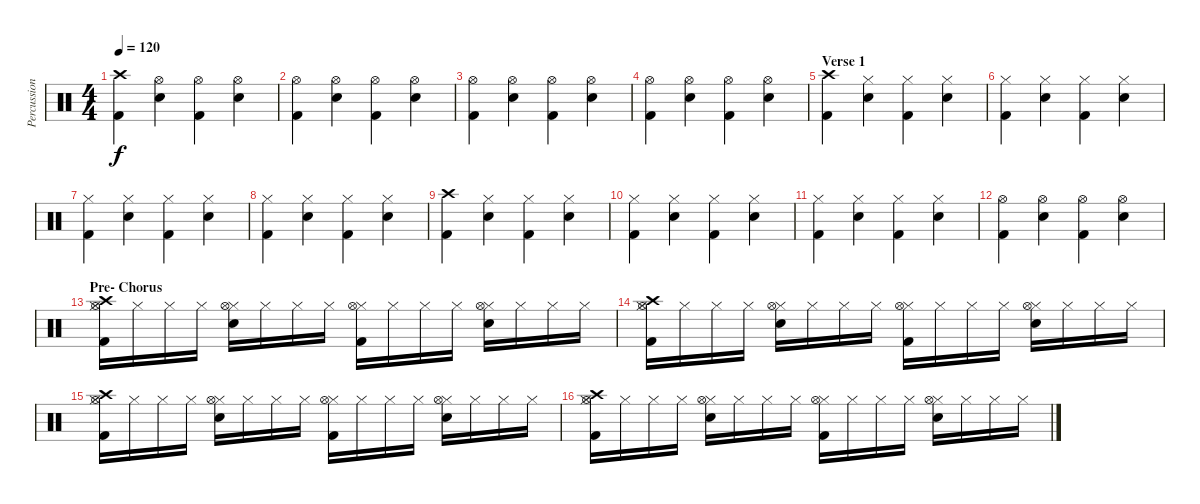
\track ("Percussion" "Percussion") {instrument percussion}
\staff {score}
\articulation defaults
\ts (4 4)
\tempo 120
\clef neutral
\ks c
("Crash high (hit)" "Kick (hit) 2").4{dy f} ("Hi-Hat (open)" "Snare (hit) 2").4 ("Hi-Hat (open)" "Kick (hit) 2").4 ("Hi-Hat (open)" "Snare (hit) 2").4 |
("Hi-Hat (open)" "Kick (hit) 2").4 ("Hi-Hat (open)" "Snare (hit) 2").4 ("Hi-Hat (open)" "Kick (hit) 2").4 ("Hi-Hat (open)" "Snare (hit) 2").4 |
("Hi-Hat (open)" "Kick (hit) 2").4 ("Hi-Hat (open)" "Snare (hit) 2").4 ("Hi-Hat (open)" "Kick (hit) 2").4 ("Hi-Hat (open)" "Snare (hit) 2").4 |
("Hi-Hat (open)" "Kick (hit) 2").4 ("Hi-Hat (open)" "Snare (hit) 2").4 ("Hi-Hat (open)" "Kick (hit) 2").4 ("Hi-Hat (open)" "Snare (hit) 2").4 |
\section ("" "Verse 1")
("Crash high (hit)" "Kick (hit) 2").4 ("Hi-Hat (closed)" "Snare (hit) 2").4 ("Hi-Hat (closed)" "Kick (hit) 2").4 ("Hi-Hat (closed)" "Snare (hit) 2").4 |
("Hi-Hat (closed)" "Kick (hit) 2").4 ("Hi-Hat (closed)" "Snare (hit) 2").4 ("Hi-Hat (closed)" "Kick (hit) 2").4 ("Hi-Hat (closed)" "Snare (hit) 2").4 |
("Hi-Hat (closed)" "Kick (hit) 2").4 ("Hi-Hat (closed)" "Snare (hit) 2").4 ("Hi-Hat (closed)" "Kick (hit) 2").4 ("Hi-Hat (closed)" "Snare (hit) 2").4 |
("Hi-Hat (closed)" "Kick (hit) 2").4 ("Hi-Hat (closed)" "Snare (hit) 2").4 ("Hi-Hat (closed)" "Kick (hit) 2").4 ("Hi-Hat (closed)" "Snare (hit) 2").4 |
("Crash high (hit)" "Kick (hit) 2").4 ("Hi-Hat (closed)" "Snare (hit) 2").4 ("Hi-Hat (closed)" "Kick (hit) 2").4 ("Hi-Hat (closed)" "Snare (hit) 2").4 |
("Hi-Hat (closed)" "Kick (hit) 2").4 ("Hi-Hat (closed)" "Snare (hit) 2").4 ("Hi-Hat (closed)" "Kick (hit) 2").4 ("Hi-Hat (closed)" "Snare (hit) 2").4 |
("Hi-Hat (closed)" "Kick (hit) 2").4 ("Hi-Hat (closed)" "Snare (hit) 2").4 ("Hi-Hat (closed)" "Kick (hit) 2").4 ("Hi-Hat (closed)" "Snare (hit) 2").4 |
("Hi-Hat (open)" "Kick (hit) 2").4 ("Hi-Hat (open)" "Snare (hit) 2").4 ("Hi-Hat (open)" "Kick (hit) 2").4 ("Hi-Hat (open)" "Snare (hit) 2").4 |
\section ("" "Pre- Chorus")
("Hi-Hat (closed)" "Kick (hit) 2" "Crash high (hit)" "Hi-Hat (open)").16 "Hi-Hat (closed)".16 "Hi-Hat (closed)".16 "Hi-Hat (closed)".16 ("Hi-Hat (closed)" "Snare (hit) 2" "Hi-Hat (open)").16 "Hi-Hat (closed)".16 "Hi-Hat (closed)".16 "Hi-Hat (closed)".16 ("Hi-Hat (closed)" "Kick (hit) 2" "Hi-Hat (open)").16 "Hi-Hat (closed)".16 "Hi-Hat (closed)".16 "Hi-Hat (closed)".16 ("Hi-Hat (closed)" "Snare (hit) 2" "Hi-Hat (open)").16 "Hi-Hat (closed)".16 "Hi-Hat (closed)".16 "Hi-Hat (closed)".16 |
("Hi-Hat (closed)" "Kick (hit) 2" "Crash high (hit)" "Hi-Hat (open)").16 "Hi-Hat (closed)".16 "Hi-Hat (closed)".16 "Hi-Hat (closed)".16 ("Hi-Hat (closed)" "Snare (hit) 2" "Hi-Hat (open)").16 "Hi-Hat (closed)".16 "Hi-Hat (closed)".16 "Hi-Hat (closed)".16 ("Hi-Hat (closed)" "Kick (hit) 2" "Hi-Hat (open)").16 "Hi-Hat (closed)".16 "Hi-Hat (closed)".16 "Hi-Hat (closed)".16 ("Hi-Hat (closed)" "Snare (hit) 2" "Hi-Hat (open)").16 "Hi-Hat (closed)".16 "Hi-Hat (closed)".16 "Hi-Hat (closed)".16 |
("Hi-Hat (closed)" "Kick (hit) 2" "Crash high (hit)" "Hi-Hat (open)").16 "Hi-Hat (closed)".16 "Hi-Hat (closed)".16 "Hi-Hat (closed)".16 ("Hi-Hat (closed)" "Snare (hit) 2" "Hi-Hat (open)").16 "Hi-Hat (closed)".16 "Hi-Hat (closed)".16 "Hi-Hat (closed)".16 ("Hi-Hat (closed)" "Kick (hit) 2" "Hi-Hat (open)").16 "Hi-Hat (closed)".16 "Hi-Hat (closed)".16 "Hi-Hat (closed)".16 ("Hi-Hat (closed)" "Snare (hit) 2" "Hi-Hat (open)").16 "Hi-Hat (closed)".16 "Hi-Hat (closed)".16 "Hi-Hat (closed)".16 |
("Hi-Hat (closed)" "Kick (hit) 2" "Crash high (hit)" "Hi-Hat (open)").16 "Hi-Hat (closed)".16 "Hi-Hat (closed)".16 "Hi-Hat (closed)".16 ("Hi-Hat (closed)" "Snare (hit) 2" "Hi-Hat (open)").16 "Hi-Hat (closed)".16 "Hi-Hat (closed)".16 "Hi-Hat (closed)".16 ("Hi-Hat (closed)" "Kick (hit) 2" "Hi-Hat (open)").16 "Hi-Hat (closed)".16 "Hi-Hat (closed)".16 "Hi-Hat (closed)".16 ("Hi-Hat (closed)" "Snare (hit) 2" "Hi-Hat (open)").16 "Hi-Hat (closed)".16 "Hi-Hat (closed)".16 "Hi-Hat (closed)".16
